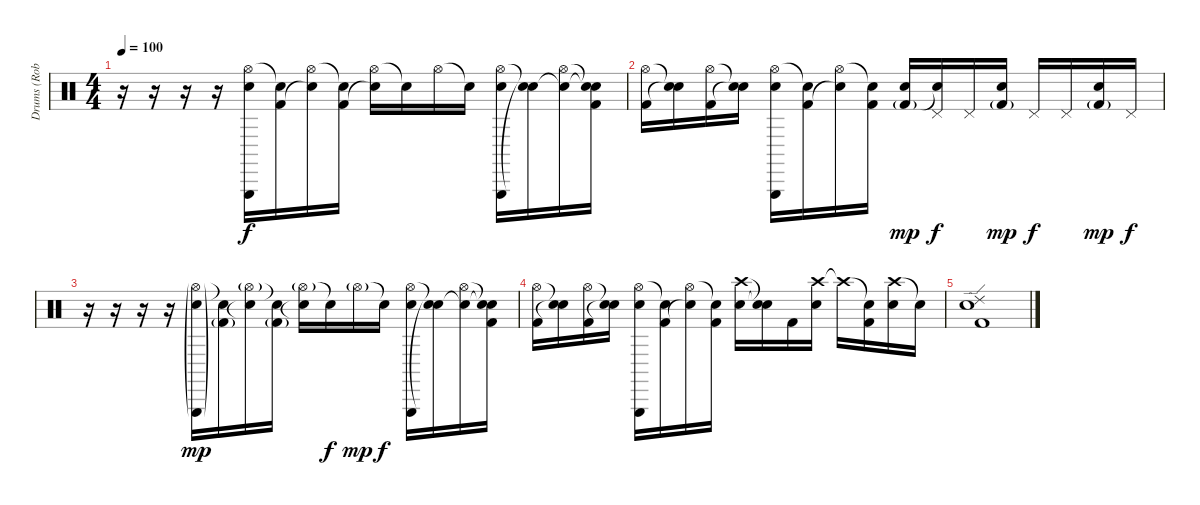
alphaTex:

\track ("Drums (Rob Bourdon)" "Drums (Rob") {instrument percussion}
\staff {score}
\articulation defaults
\ts (4 4)
\tempo 100
\clef neutral
\ks c
r.16{dy f} r.16 r.16 r.16 ("Hi-Hat (open)" "Triangle (hit)" "Electric Snare (hit)").16 ("Snare (hit)"{t} "Kick (hit) 2").16 ("Hi-Hat (open)" "Snare (hit)"{t}).16 ("Snare (hit)"{t} "Kick (hit) 2").16 ("Hi-Hat (open)" "Snare (hit)"{t}).16 "Snare (hit)"{t}.16 "Hi-Hat (open)".16 "Snare (hit)"{t}.16 ("Hi-Hat (open)" "Triangle (hit)" "Electric Snare (hit)").16 ("Snare (hit)"{t} "Snare (hit)"{t}).16 ("Hi-Hat (open)" "Snare (hit)"{t}).16 ("Snare (hit)"{t} "Snare (hit)"{t} "Kick (hit) 2").16 |
("Hi-Hat (open)" "Kick (hit) 2").16 ("Snare (hit)"{t} "Snare (hit)"{t}).16 ("Hi-Hat (open)" "Kick (hit) 2").16 ("Snare (hit)"{t} "Snare (hit)"{t}).16 ("Hi-Hat (open)" "Triangle (hit)" "Electric Snare (hit)").16 ("Snare (hit)"{t} "Kick (hit) 2").16 ("Hi-Hat (open)" "Snare (hit)"{t}).16 ("Snare (hit)"{t} "Kick (hit) 2").16 ("Electric Snare (hit)" "Kick (hit) 2"{g}).16{dy mp} ("Pedal Hi-Hat (hit)" "Snare (hit)"{t}).16{dy f} "Pedal Hi-Hat (hit)".16 ("Electric Snare (hit)" "Kick (hit) 2"{g}).16{dy mp} "Pedal Hi-Hat (hit)".16{dy f} "Pedal Hi-Hat (hit)".16 ("Electric Snare (hit)" "Kick (hit) 2"{g}).16{dy mp} "Pedal Hi-Hat (hit)".16{dy f} |
r.16 r.16 r.16 r.16 ("Hi-Hat (open)"{g} "Triangle (hit)"{g} "Electric Snare (hit)"{g}).16{dy mp} ("Snare (hit)"{t} "Kick (hit) 2"{g}).16 ("Hi-Hat (open)"{g} "Snare (hit)"{t}).16 ("Snare (hit)"{t} "Kick (hit) 2"{g}).16 ("Hi-Hat (open)"{g} "Snare (hit)"{t}).16 "Snare (hit)"{t}.16{dy f} "Hi-Hat (open)"{g}.16{dy mp} "Snare (hit)"{t}.16{dy f} ("Hi-Hat (open)" "Triangle (hit)" "Electric Snare (hit)").16 ("Snare (hit)"{t} "Snare (hit)"{t}).16 ("Hi-Hat (open)" "Snare (hit)"{t}).16 ("Snare (hit)"{t} "Snare (hit)"{t} "Kick (hit) 2").16 |
("Hi-Hat (open)" "Kick (hit) 2").16 ("Snare (hit)"{t} "Snare (hit)"{t}).16 ("Hi-Hat (open)" "Kick (hit) 2").16 ("Snare (hit)"{t} "Snare (hit)"{t}).16 ("Hi-Hat (open)" "Triangle (hit)" "Electric Snare (hit)").16 ("Snare (hit)"{t} "Kick (hit) 2").16 ("Hi-Hat (open)" "Snare (hit)"{t}).16 ("Snare (hit)"{t} "Kick (hit) 2").16 ("Crash high (hit)" "Electric Snare (hit)").16 ("Snare (hit)"{t} "Snare (hit)"{t}).16 "Kick (hit) 2".16 ("Crash high (hit)" "Electric Snare (hit)").16 "Crash high (hit)"{t}.16 ("Snare (hit)"{t} "Kick (hit) 2").16 ("Crash high (hit)" "Electric Snare (hit)").16 "Snare (hit)"{t}.16 |
("Ride (edge) 2" "Electric Snare (hit)" "Kick (hit) 2").1
